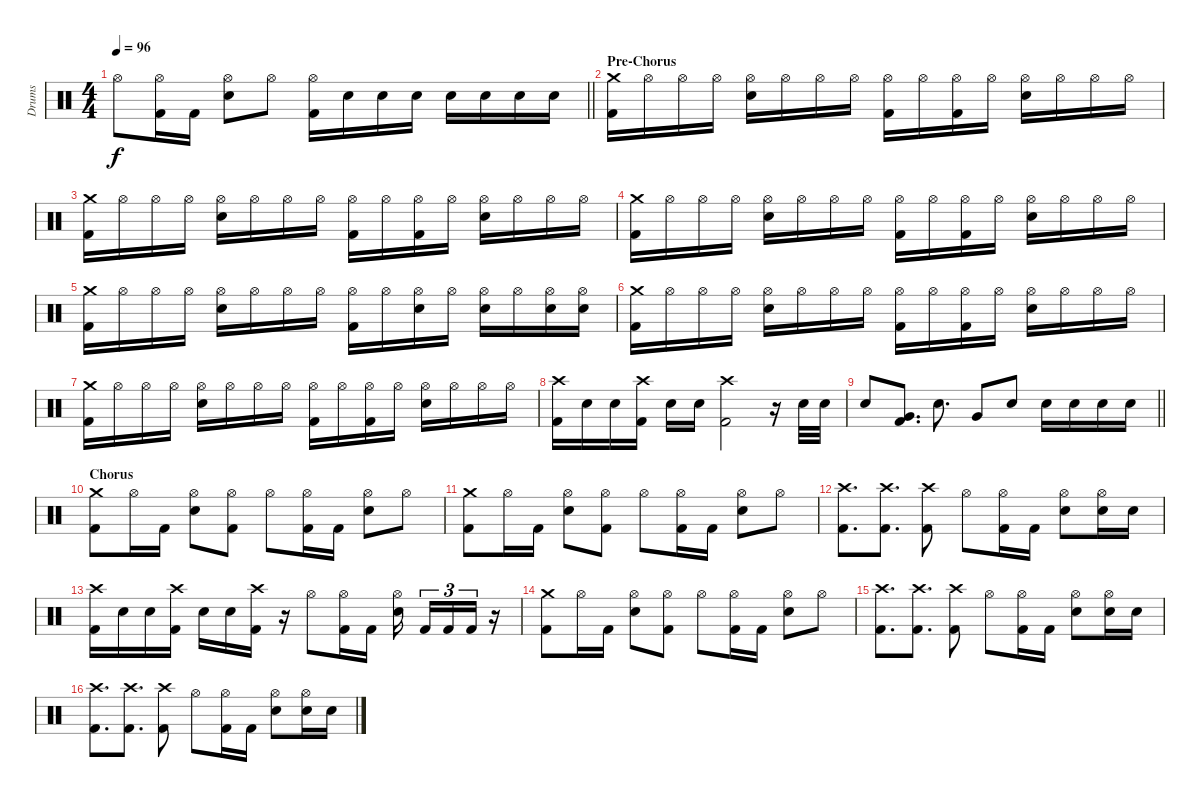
\track ("Drums" "Drums") {instrument percussion}
\staff {score}
\articulation defaults
\ts (4 4)
\tempo 96
\clef neutral
\barLineRight lightlight
\ks c "Hi-Hat (open)".8{dy f}
("Hi-Hat (open)" "Kick (hit) 2").16 "Kick (hit) 2".16 ("Hi-Hat (open)" "Electric Snare (hit)").8 "Hi-Hat (open)".8 ("Hi-Hat (open)" "Kick (hit) 2").16 "Electric Snare (hit)".16 "Electric Snare (hit)".16 "Electric Snare (hit)".16 "Electric Snare (hit)".16 "Electric Snare (hit)".16 "Electric Snare (hit)".16 "Electric Snare (hit)".16 |
\section ("" "Pre-Chorus")
("Crash medium (hit)" "Kick (hit) 2").16 "Hi-Hat (open)".16 "Hi-Hat (open)".16 "Hi-Hat (open)".16 ("Hi-Hat (open)" "Electric Snare (hit)").16 "Hi-Hat (open)".16 "Hi-Hat (open)".16 "Hi-Hat (open)".16 ("Hi-Hat (open)" "Kick (hit) 2").16 "Hi-Hat (open)".16 ("Hi-Hat (open)" "Kick (hit) 2").16 "Hi-Hat (open)".16 ("Hi-Hat (open)" "Electric Snare (hit)").16 "Hi-Hat (open)".16 "Hi-Hat (open)".16 "Hi-Hat (open)".16 |
("Crash medium (hit)" "Kick (hit) 2").16 "Hi-Hat (open)".16 "Hi-Hat (open)".16 "Hi-Hat (open)".16 ("Hi-Hat (open)" "Electric Snare (hit)").16 "Hi-Hat (open)".16 "Hi-Hat (open)".16 "Hi-Hat (open)".16 ("Hi-Hat (open)" "Kick (hit) 2").16 "Hi-Hat (open)".16 ("Hi-Hat (open)" "Kick (hit) 2").16 "Hi-Hat (open)".16 ("Hi-Hat (open)" "Electric Snare (hit)").16 "Hi-Hat (open)".16 "Hi-Hat (open)".16 "Hi-Hat (open)".16 |
("Crash medium (hit)" "Kick (hit) 2").16 "Hi-Hat (open)".16 "Hi-Hat (open)".16 "Hi-Hat (open)".16 ("Hi-Hat (open)" "Electric Snare (hit)").16 "Hi-Hat (open)".16 "Hi-Hat (open)".16 "Hi-Hat (open)".16 ("Hi-Hat (open)" "Kick (hit) 2").16 "Hi-Hat (open)".16 ("Hi-Hat (open)" "Kick (hit) 2").16 "Hi-Hat (open)".16 ("Hi-Hat (open)" "Electric Snare (hit)").16 "Hi-Hat (open)".16 "Hi-Hat (open)".16 "Hi-Hat (open)".16 |
("Crash medium (hit)" "Kick (hit) 2").16 "Hi-Hat (open)".16 "Hi-Hat (open)".16 "Hi-Hat (open)".16 ("Hi-Hat (open)" "Electric Snare (hit)").16 "Hi-Hat (open)".16 "Hi-Hat (open)".16 "Hi-Hat (open)".16 ("Hi-Hat (open)" "Kick (hit) 2").16 "Hi-Hat (open)".16 ("Hi-Hat (open)" "Electric Snare (hit)").16 "Hi-Hat (open)".16 ("Hi-Hat (open)" "Electric Snare (hit)").16 "Hi-Hat (open)".16 ("Hi-Hat (open)" "Electric Snare (hit)").16 ("Hi-Hat (open)" "Electric Snare (hit)").16 |
("Crash medium (hit)" "Kick (hit) 2").16 "Hi-Hat (open)".16 "Hi-Hat (open)".16 "Hi-Hat (open)".16 ("Hi-Hat (open)" "Electric Snare (hit)").16 "Hi-Hat (open)".16 "Hi-Hat (open)".16 "Hi-Hat (open)".16 ("Hi-Hat (open)" "Kick (hit) 2").16 "Hi-Hat (open)".16 ("Hi-Hat (open)" "Kick (hit) 2").16 "Hi-Hat (open)".16 ("Hi-Hat (open)" "Electric Snare (hit)").16 "Hi-Hat (open)".16 "Hi-Hat (open)".16 "Hi-Hat (open)".16 |
("Crash medium (hit)" "Kick (hit) 2").16 "Hi-Hat (open)".16 "Hi-Hat (open)".16 "Hi-Hat (open)".16 ("Hi-Hat (open)" "Electric Snare (hit)").16 "Hi-Hat (open)".16 "Hi-Hat (open)".16 "Hi-Hat (open)".16 ("Hi-Hat (open)" "Kick (hit) 2").16 "Hi-Hat (open)".16 ("Hi-Hat (open)" "Kick (hit) 2").16 "Hi-Hat (open)".16 ("Hi-Hat (open)" "Electric Snare (hit)").16 "Hi-Hat (open)".16 "Hi-Hat (open)".16 "Hi-Hat (open)".16 |
("Crash high (hit)" "Kick (hit) 2").16 "Electric Snare (hit)".16 "Electric Snare (hit)".16 ("Crash high (hit)" "Kick (hit) 2").16 "Electric Snare (hit)".16 "Electric Snare (hit)".16 ("Crash high (hit)" "Kick (hit) 2").2 r.16 "Electric Snare (hit)".32 "Electric Snare (hit)".32 |
\barLineRight lightlight "Electric Snare (hit)".8
("Very Low Tom (hit)" "Kick (hit) 2").8{d} "Electric Snare (hit)".8{d} "Very Low Tom (hit)".8 "Electric Snare (hit)".8 "Electric Snare (hit)".16 "Electric Snare (hit)".16 "Electric Snare (hit)".16 "Electric Snare (hit)".16 |
\section ("" "Chorus")
("Crash medium (hit)" "Kick (hit) 2").8 "Hi-Hat (open)".16 "Kick (hit) 2".16 ("Hi-Hat (open)" "Electric Snare (hit)").8 ("Hi-Hat (open)" "Kick (hit) 2").8 "Hi-Hat (open)".8 ("Hi-Hat (open)" "Kick (hit) 2").16 "Kick (hit) 2".16 ("Hi-Hat (open)" "Electric Snare (hit)").8 "Hi-Hat (open)".8 |
("Crash medium (hit)" "Kick (hit) 2").8 "Hi-Hat (open)".16 "Kick (hit) 2".16 ("Hi-Hat (open)" "Electric Snare (hit)").8 ("Hi-Hat (open)" "Kick (hit) 2").8 "Hi-Hat (open)".8 ("Hi-Hat (open)" "Kick (hit) 2").16 "Kick (hit) 2".16 ("Hi-Hat (open)" "Electric Snare (hit)").8 "Hi-Hat (open)".8 |
("Crash high (hit)" "Kick (hit) 2").8{d} ("Crash high (hit)" "Kick (hit) 2").8{d} ("Crash high (hit)" "Kick (hit) 2").8 "Hi-Hat (open)".8 ("Hi-Hat (open)" "Kick (hit) 2").16 "Kick (hit) 2".16 ("Hi-Hat (open)" "Electric Snare (hit)").8 ("Hi-Hat (open)" "Electric Snare (hit)").16 "Electric Snare (hit)".16 |
("Crash high (hit)" "Kick (hit) 2").16 "Electric Snare (hit)".16 "Electric Snare (hit)".16 ("Crash high (hit)" "Kick (hit) 2").16 "Electric Snare (hit)".16 "Electric Snare (hit)".16 ("Crash high (hit)" "Kick (hit) 2").16 r.16 "Hi-Hat (open)".8 ("Hi-Hat (open)" "Kick (hit) 2").16 "Kick (hit) 2".16 ("Hi-Hat (open)" "Electric Snare (hit)").16{beam splitsecondary} "Kick (hit) 2".16{tu (3 2)} "Kick (hit) 2".16{tu (3 2)} "Kick (hit) 2".16{tu (3 2)} r.16 |
("Crash medium (hit)" "Kick (hit) 2").8 "Hi-Hat (open)".16 "Kick (hit) 2".16 ("Hi-Hat (open)" "Electric Snare (hit)").8 ("Hi-Hat (open)" "Kick (hit) 2").8 "Hi-Hat (open)".8 ("Hi-Hat (open)" "Kick (hit) 2").16 "Kick (hit) 2".16 ("Hi-Hat (open)" "Electric Snare (hit)").8 "Hi-Hat (open)".8 |
("Crash high (hit)" "Kick (hit) 2").8{d} ("Crash high (hit)" "Kick (hit) 2").8{d} ("Crash high (hit)" "Kick (hit) 2").8 "Hi-Hat (open)".8 ("Hi-Hat (open)" "Kick (hit) 2").16 "Kick (hit) 2".16 ("Hi-Hat (open)" "Electric Snare (hit)").8 ("Hi-Hat (open)" "Electric Snare (hit)").16 "Electric Snare (hit)".16 |
("Crash high (hit)" "Kick (hit) 2").8{d} ("Crash high (hit)" "Kick (hit) 2").8{d} ("Crash high (hit)" "Kick (hit) 2").8 "Hi-Hat (open)".8 ("Hi-Hat (open)" "Kick (hit) 2").16 "Kick (hit) 2".16 ("Hi-Hat (open)" "Electric Snare (hit)").8 ("Hi-Hat (open)" "Electric Snare (hit)").16 "Electric Snare (hit)".16
